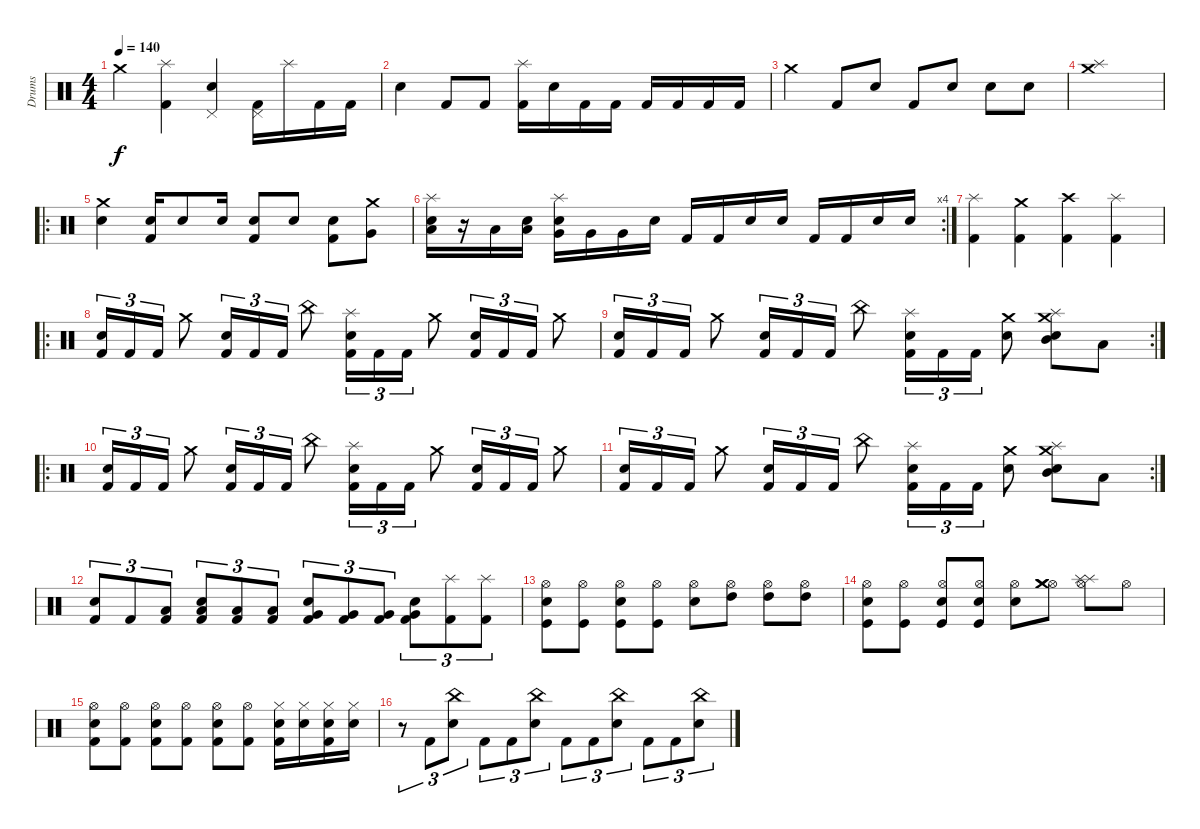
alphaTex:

\track ("Drums" "Drums") {instrument percussion}
\staff {score}
\articulation defaults
\ts (4 4)
\tempo 140
\clef neutral
\ks c "Crash medium (hit)".4{dy f}
("Splash (hit)" "Kick (hit) 2").4 ("Pedal Hi-Hat (hit)" "Snare (hit) 2").4 ("Pedal Hi-Hat (hit)" "Kick (hit) 2").16 "Splash (hit)".16 "Kick (hit) 2".16 "Kick (hit) 2".16 |
"Snare (hit) 2".4 "Kick (hit) 2".8 "Kick (hit) 2".8 ("Splash (hit)" "Kick (hit) 2").16 "Snare (hit) 2".16 "Kick (hit) 2".16 "Kick (hit) 2".16 "Kick (hit) 2".16 "Kick (hit) 2".16 "Kick (hit) 2".16 "Kick (hit) 2".16 |
"Crash medium (hit)".4 "Kick (hit) 2".8 "Snare (hit) 2".8 "Kick (hit) 2".8 "Snare (hit) 2".8 "Electric Snare (hit)".8 "Electric Snare (hit)".8 |
("Splash (hit)" "Crash medium (hit)").1 |
\ro
("Snare (hit) 2" "Crash medium (hit)").4 ("Snare (hit) 2" "Kick (hit) 2").16 "Snare (hit) 2".8 "Snare (hit) 2".16 ("Snare (hit) 2" "Kick (hit) 2").8 "Snare (hit) 2".8 ("Snare (hit) 2" "Kick (hit) 2").8 ("Very Low Tom (hit)" "Crash medium (hit)").8 |
\rc 4
("Snare (hit) 2" "Splash (hit)" "Low Floor Tom (hit)").16 r.16 "Low Floor Tom (hit)".16 ("Snare (hit) 2" "Low Floor Tom (hit)").16 ("Snare (hit) 2" "Splash (hit)" "Very Low Tom (hit)").16 "Very Low Tom (hit)".16 "Very Low Tom (hit)".16 "Snare (hit) 2".16 "Kick (hit) 2".16 "Kick (hit) 2".16 "Snare (hit) 2".16 "Snare (hit) 2".16 "Kick (hit) 2".16 "Kick (hit) 2".16 "Snare (hit) 2".16 "Snare (hit) 2".16 |
("Splash (hit)" "Kick (hit) 2").4 ("Crash medium (hit)" "Kick (hit) 2").4 ("Crash high (hit)" "Kick (hit) 2").4 ("Splash (hit)" "Kick (hit) 2").4 |
\ro
("Snare (hit) 2" "Kick (hit) 2").16{tu (3 2)} "Kick (hit) 2".16{tu (3 2)} "Kick (hit) 2".16{tu (3 2)} "Crash medium (hit)".8 ("Snare (hit) 2" "Kick (hit) 2").16{tu (3 2)} "Kick (hit) 2".16{tu (3 2)} "Kick (hit) 2".16{tu (3 2)} "China (hit)".8 ("Snare (hit) 2" "Splash (hit)" "Kick (hit) 2").16{tu (3 2)} "Kick (hit) 2".16{tu (3 2)} "Kick (hit) 2".16{tu (3 2)} "Crash medium (hit)".8 ("Snare (hit) 2" "Kick (hit) 2").16{tu (3 2)} "Kick (hit) 2".16{tu (3 2)} "Kick (hit) 2".16{tu (3 2)} "Crash medium (hit)".8 |
\rc 2
("Snare (hit) 2" "Kick (hit) 2").16{tu (3 2)} "Kick (hit) 2".16{tu (3 2)} "Kick (hit) 2".16{tu (3 2)} "Crash medium (hit)".8 ("Snare (hit) 2" "Kick (hit) 2").16{tu (3 2)} "Kick (hit) 2".16{tu (3 2)} "Kick (hit) 2".16{tu (3 2)} "China (hit)".8 ("Snare (hit) 2" "Splash (hit)" "Kick (hit) 2").16{tu (3 2)} "Kick (hit) 2".16{tu (3 2)} "Kick (hit) 2".16{tu (3 2)} ("Snare (hit) 2" "Crash medium (hit)").8 ("Crash medium (hit)" "Mid Tom (hit)" "Snare (hit) 2" "Splash (hit)").8 "Low Floor Tom (hit)".8 |
\ro
("Snare (hit) 2" "Kick (hit) 2").16{tu (3 2)} "Kick (hit) 2".16{tu (3 2)} "Kick (hit) 2".16{tu (3 2)} "Crash medium (hit)".8 ("Snare (hit) 2" "Kick (hit) 2").16{tu (3 2)} "Kick (hit) 2".16{tu (3 2)} "Kick (hit) 2".16{tu (3 2)} "China (hit)".8 ("Snare (hit) 2" "Splash (hit)" "Kick (hit) 2").16{tu (3 2)} "Kick (hit) 2".16{tu (3 2)} "Kick (hit) 2".16{tu (3 2)} "Crash medium (hit)".8 ("Snare (hit) 2" "Kick (hit) 2").16{tu (3 2)} "Kick (hit) 2".16{tu (3 2)} "Kick (hit) 2".16{tu (3 2)} "Crash medium (hit)".8 |
\rc 2
("Snare (hit) 2" "Kick (hit) 2").16{tu (3 2)} "Kick (hit) 2".16{tu (3 2)} "Kick (hit) 2".16{tu (3 2)} "Crash medium (hit)".8 ("Snare (hit) 2" "Kick (hit) 2").16{tu (3 2)} "Kick (hit) 2".16{tu (3 2)} "Kick (hit) 2".16{tu (3 2)} "China (hit)".8 ("Snare (hit) 2" "Splash (hit)" "Kick (hit) 2").16{tu (3 2)} "Kick (hit) 2".16{tu (3 2)} "Kick (hit) 2".16{tu (3 2)} ("Snare (hit) 2" "Crash medium (hit)").8 ("Crash medium (hit)" "Mid Tom (hit)" "Snare (hit) 2" "Splash (hit)").8 "Low Floor Tom (hit)".8 |
("Snare (hit) 2" "Kick (hit) 2").8{tu (3 2)} "Kick (hit) 2".8{tu (3 2)} ("Low Floor Tom (hit)" "Kick (hit) 2").8{tu (3 2)} ("Low Floor Tom (hit)" "Snare (hit) 2" "Kick (hit) 2").8{tu (3 2)} ("Low Floor Tom (hit)" "Kick (hit) 2").8{tu (3 2)} ("Low Floor Tom (hit)" "Kick (hit) 2").8{tu (3 2)} ("Very Low Tom (hit)" "Snare (hit) 2" "Kick (hit) 2").8{tu (3 2)} ("Very Low Tom (hit)" "Kick (hit) 2").8{tu (3 2)} ("Very Low Tom (hit)" "Kick (hit) 2").8{tu (3 2)} ("Very Low Tom (hit)" "Snare (hit) 2" "Kick (hit) 2").8{tu (3 2)} ("Splash (hit)" "Kick (hit) 2").8{tu (3 2)} ("Splash (hit)" "Kick (hit) 2").8{tu (3 2)} |
("Hi-Hat (open)" "Snare (hit) 2" "Kick (hit)").8 ("Hi-Hat (open)" "Kick (hit)").8 ("Hi-Hat (open)" "Snare (hit) 2" "Kick (hit)").8 ("Hi-Hat (open)" "Kick (hit)").8 ("Hi-Hat (open)" "Snare (hit) 2").8 ("Hi-Hat (open)" "High Tom (hit)").8 ("Hi-Hat (open)" "High Tom (hit)").8 ("Hi-Hat (open)" "High Tom (hit)").8 |
("Hi-Hat (open)" "Snare (hit) 2" "Kick (hit)").8 ("Hi-Hat (open)" "Kick (hit)").8 ("Hi-Hat (open)" "Snare (hit) 2" "Kick (hit)").8 ("Hi-Hat (open)" "Snare (hit) 2" "Kick (hit)").8 ("Hi-Hat (open)" "Snare (hit) 2").8 ("Hi-Hat (open)" "Crash medium (hit)" "Crash medium (hit)").8 ("Hi-Hat (open)" "Splash (hit)" "Splash (hit)").8 "Hi-Hat (open)".8 |
("Hi-Hat (open)" "Snare (hit) 2" "Kick (hit) 2").8 ("Hi-Hat (open)" "Kick (hit) 2").8 ("Hi-Hat (open)" "Snare (hit) 2" "Kick (hit) 2").8 ("Hi-Hat (open)" "Kick (hit) 2").8 ("Hi-Hat (open)" "Snare (hit) 2" "Kick (hit) 2").8 ("Hi-Hat (open)" "Kick (hit) 2").8 ("Hi-Hat (closed)" "Snare (hit) 2" "Kick (hit) 2").16 ("Hi-Hat (closed)" "Snare (hit) 2").16 ("Hi-Hat (closed)" "Snare (hit) 2" "Kick (hit) 2").16 ("Hi-Hat (closed)" "Snare (hit) 2").16 |
r.8{tu (3 2)} "Kick (hit) 2".8{tu (3 2)} ("China (hit)" "Snare (hit) 2").8{tu (3 2)} "Kick (hit) 2".8{tu (3 2)} "Kick (hit) 2".8{tu (3 2)} ("China (hit)" "Snare (hit) 2").8{tu (3 2)} "Kick (hit) 2".8{tu (3 2)} "Kick (hit) 2".8{tu (3 2)} ("China (hit)" "Snare (hit) 2").8{tu (3 2)} "Kick (hit) 2".8{tu (3 2)} "Kick (hit) 2".8{tu (3 2)} ("China (hit)" "Snare (hit) 2").8{tu (3 2)}
